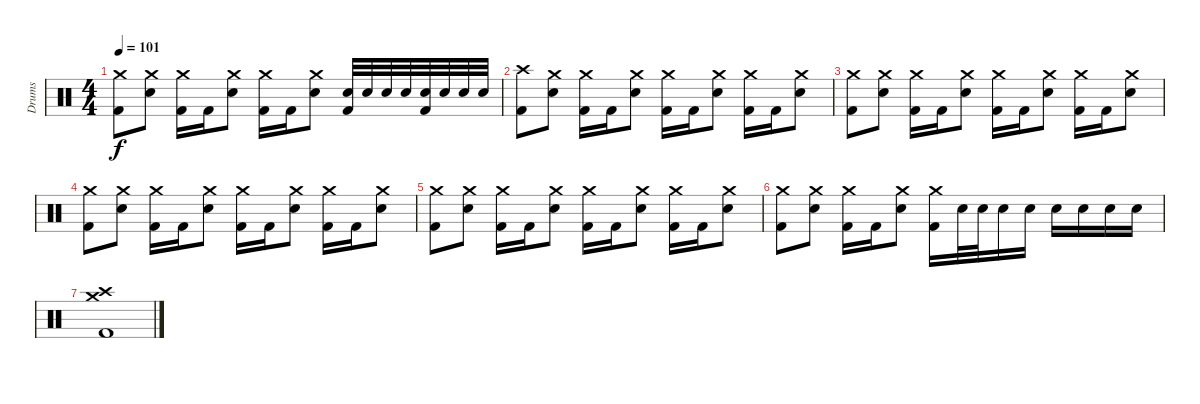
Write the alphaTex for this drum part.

\track ("Drums" "Drums") {instrument percussion}
\staff {score}
\articulation defaults
\ts (4 4)
\tempo 101
\clef neutral
\ks c
("Crash medium (hit)" "Kick (hit) 2").8{dy f} ("Crash medium (hit)" "Snare (hit) 2").8 ("Crash medium (hit)" "Kick (hit) 2").16 "Kick (hit) 2".16 ("Crash medium (hit)" "Snare (hit) 2").8 ("Crash medium (hit)" "Kick (hit) 2").16 "Kick (hit) 2".16 ("Crash medium (hit)" "Snare (hit) 2").8 ("Snare (hit) 2" "Kick (hit) 2").32 "Snare (hit) 2".32 "Snare (hit) 2".32 "Snare (hit) 2".32 ("Snare (hit) 2" "Kick (hit) 2").32 "Snare (hit) 2".32 "Snare (hit) 2".32 "Snare (hit) 2".32 |
("Crash high (hit)" "Kick (hit) 2").8 ("Crash medium (hit)" "Snare (hit) 2").8 ("Crash medium (hit)" "Kick (hit) 2").16 "Kick (hit) 2".16 ("Crash medium (hit)" "Snare (hit) 2").8 ("Crash medium (hit)" "Kick (hit) 2").16 "Kick (hit) 2".16 ("Crash medium (hit)" "Snare (hit) 2").8 ("Crash medium (hit)" "Kick (hit) 2").16 "Kick (hit) 2".16 ("Crash medium (hit)" "Snare (hit) 2").8 |
("Crash medium (hit)" "Kick (hit) 2").8 ("Crash medium (hit)" "Snare (hit) 2").8 ("Crash medium (hit)" "Kick (hit) 2").16 "Kick (hit) 2".16 ("Crash medium (hit)" "Snare (hit) 2").8 ("Crash medium (hit)" "Kick (hit) 2").16 "Kick (hit) 2".16 ("Crash medium (hit)" "Snare (hit) 2").8 ("Crash medium (hit)" "Kick (hit) 2").16 "Kick (hit) 2".16 ("Crash medium (hit)" "Snare (hit) 2").8 |
("Crash medium (hit)" "Kick (hit) 2").8 ("Crash medium (hit)" "Snare (hit) 2").8 ("Crash medium (hit)" "Kick (hit) 2").16 "Kick (hit) 2".16 ("Crash medium (hit)" "Snare (hit) 2").8 ("Crash medium (hit)" "Kick (hit) 2").16 "Kick (hit) 2".16 ("Crash medium (hit)" "Snare (hit) 2").8 ("Crash medium (hit)" "Kick (hit) 2").16 "Kick (hit) 2".16 ("Crash medium (hit)" "Snare (hit) 2").8 |
("Crash medium (hit)" "Kick (hit) 2").8 ("Crash medium (hit)" "Snare (hit) 2").8 ("Crash medium (hit)" "Kick (hit) 2").16 "Kick (hit) 2".16 ("Crash medium (hit)" "Snare (hit) 2").8 ("Crash medium (hit)" "Kick (hit) 2").16 "Kick (hit) 2".16 ("Crash medium (hit)" "Snare (hit) 2").8 ("Crash medium (hit)" "Kick (hit) 2").16 "Kick (hit) 2".16 ("Crash medium (hit)" "Snare (hit) 2").8 |
("Crash medium (hit)" "Kick (hit) 2").8 ("Crash medium (hit)" "Snare (hit) 2").8 ("Crash medium (hit)" "Kick (hit) 2").16 "Kick (hit) 2".16 ("Crash medium (hit)" "Snare (hit) 2").8 ("Crash medium (hit)" "Kick (hit) 2").16 "Snare (hit) 2".32 "Snare (hit) 2".32 "Snare (hit) 2".16 "Snare (hit) 2".16 "Snare (hit) 2".16 "Snare (hit) 2".16 "Snare (hit) 2".16 "Snare (hit) 2".16 |
("Crash high (hit)" "Crash medium (hit)" "Kick (hit) 2").1
